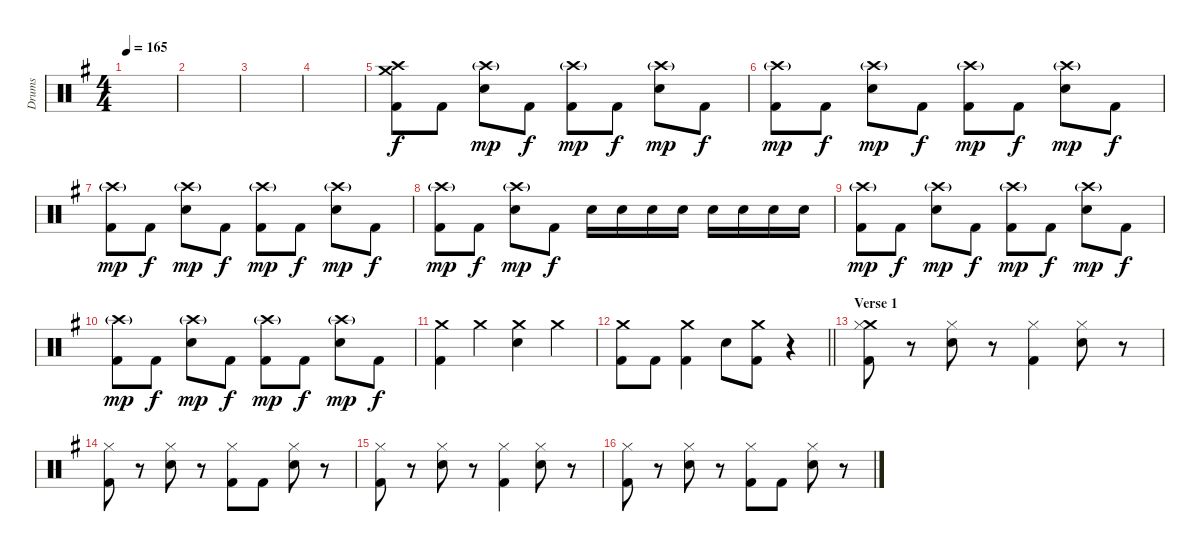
\track ("Drums" "Drums") {instrument percussion}
\staff {score}
\articulation defaults
\ts (4 4)
\tempo 165
\clef neutral
\ks eminor
|
|
|
|
("Crash medium (hit)" "Crash high (hit)" "Kick (hit) 2").8 "Kick (hit) 2".8 ("Crash high (hit)"{g} "Electric Snare (hit)").8{dy mp} "Kick (hit) 2".8{dy f} ("Crash high (hit)"{g} "Kick (hit) 2").8{dy mp} "Kick (hit) 2".8{dy f} ("Crash high (hit)"{g} "Electric Snare (hit)").8{dy mp} "Kick (hit) 2".8{dy f} |
("Crash high (hit)"{g} "Kick (hit) 2").8{dy mp} "Kick (hit) 2".8{dy f} ("Crash high (hit)"{g} "Electric Snare (hit)").8{dy mp} "Kick (hit) 2".8{dy f} ("Crash high (hit)"{g} "Kick (hit) 2").8{dy mp} "Kick (hit) 2".8{dy f} ("Crash high (hit)"{g} "Electric Snare (hit)").8{dy mp} "Kick (hit) 2".8{dy f} |
("Crash high (hit)"{g} "Kick (hit) 2").8{dy mp} "Kick (hit) 2".8{dy f} ("Crash high (hit)"{g} "Electric Snare (hit)").8{dy mp} "Kick (hit) 2".8{dy f} ("Crash high (hit)"{g} "Kick (hit) 2").8{dy mp} "Kick (hit) 2".8{dy f} ("Crash high (hit)"{g} "Electric Snare (hit)").8{dy mp} "Kick (hit) 2".8{dy f} |
("Crash high (hit)"{g} "Kick (hit) 2").8{dy mp} "Kick (hit) 2".8{dy f} ("Crash high (hit)"{g} "Electric Snare (hit)").8{dy mp} "Kick (hit) 2".8{dy f} "Electric Snare (hit)".16 "Electric Snare (hit)".16 "Electric Snare (hit)".16 "Electric Snare (hit)".16 "Electric Snare (hit)".16 "Electric Snare (hit)".16 "Electric Snare (hit)".16 "Electric Snare (hit)".16 |
("Crash high (hit)"{g} "Kick (hit) 2").8{dy mp} "Kick (hit) 2".8{dy f} ("Crash high (hit)"{g} "Electric Snare (hit)").8{dy mp} "Kick (hit) 2".8{dy f} ("Crash high (hit)"{g} "Kick (hit) 2").8{dy mp} "Kick (hit) 2".8{dy f} ("Crash high (hit)"{g} "Electric Snare (hit)").8{dy mp} "Kick (hit) 2".8{dy f} |
("Crash high (hit)"{g} "Kick (hit) 2").8{dy mp} "Kick (hit) 2".8{dy f} ("Crash high (hit)"{g} "Electric Snare (hit)").8{dy mp} "Kick (hit) 2".8{dy f} ("Crash high (hit)"{g} "Kick (hit) 2").8{dy mp} "Kick (hit) 2".8{dy f} ("Crash high (hit)"{g} "Electric Snare (hit)").8{dy mp} "Kick (hit) 2".8{dy f} |
("Crash medium (hit)" "Kick (hit) 2").4 "Crash medium (hit)".4 ("Crash medium (hit)" "Electric Snare (hit)").4 "Crash medium (hit)".4 |
\barLineRight lightlight
("Crash medium (hit)" "Kick (hit) 2").8 "Kick (hit) 2".8 ("Crash medium (hit)" "Kick (hit) 2").4 "Electric Snare (hit)".8 ("Crash medium (hit)" "Kick (hit) 2").8 r.4 |
\section ("" "Verse 1")
("Crash medium (hit)" "Hi-Hat (closed)" "Kick (hit) 2").8 r.8 ("Hi-Hat (closed)" "Electric Snare (hit)").8 r.8 ("Hi-Hat (closed)" "Kick (hit) 2").4 ("Hi-Hat (closed)" "Electric Snare (hit)").8 r.8 |
("Hi-Hat (closed)" "Kick (hit) 2").8 r.8 ("Hi-Hat (closed)" "Electric Snare (hit)").8 r.8 ("Hi-Hat (closed)" "Kick (hit) 2").8 "Kick (hit) 2".8 ("Hi-Hat (closed)" "Electric Snare (hit)").8 r.8 |
("Hi-Hat (closed)" "Kick (hit) 2").8 r.8 ("Hi-Hat (closed)" "Electric Snare (hit)").8 r.8 ("Hi-Hat (closed)" "Kick (hit) 2").4 ("Hi-Hat (closed)" "Electric Snare (hit)").8 r.8 |
("Hi-Hat (closed)" "Kick (hit) 2").8 r.8 ("Hi-Hat (closed)" "Electric Snare (hit)").8 r.8 ("Hi-Hat (closed)" "Kick (hit) 2").8 "Kick (hit) 2".8 ("Hi-Hat (closed)" "Electric Snare (hit)").8 r.8
